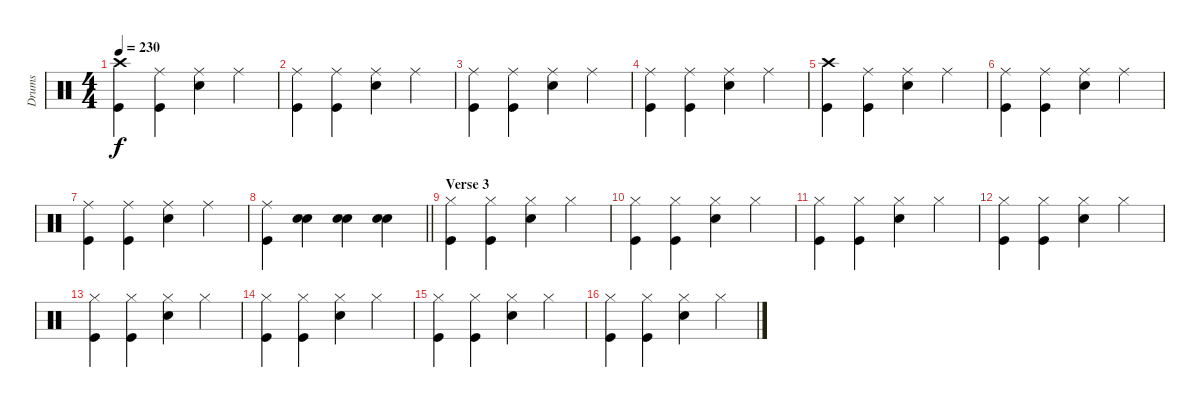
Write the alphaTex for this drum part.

\track ("Drums" "Drums") {instrument percussion}
\staff {score}
\articulation defaults
\ts (4 4)
\tempo 230
\clef neutral
\ks c
("Crash high (hit)" "Kick (hit)").4{dy f} ("Ride (middle)" "Kick (hit)").4 ("Ride (middle)" "Snare (hit) 2").4 "Ride (middle)".4 |
("Ride (middle)" "Kick (hit)").4 ("Ride (middle)" "Kick (hit)").4 ("Ride (middle)" "Snare (hit) 2").4 "Ride (middle)".4 |
("Ride (middle)" "Kick (hit)").4 ("Ride (middle)" "Kick (hit)").4 ("Ride (middle)" "Snare (hit) 2").4 "Ride (middle)".4 |
("Ride (middle)" "Kick (hit)").4 ("Ride (middle)" "Kick (hit)").4 ("Ride (middle)" "Snare (hit) 2").4 "Ride (middle)".4 |
("Crash high (hit)" "Kick (hit)").4 ("Ride (middle)" "Kick (hit)").4 ("Ride (middle)" "Snare (hit) 2").4 "Ride (middle)".4 |
("Ride (middle)" "Kick (hit)").4 ("Ride (middle)" "Kick (hit)").4 ("Ride (middle)" "Snare (hit) 2").4 "Ride (middle)".4 |
("Ride (middle)" "Kick (hit)").4 ("Ride (middle)" "Kick (hit)").4 ("Ride (middle)" "Snare (hit) 2").4 "Ride (middle)".4 |
\barLineRight lightlight
("Ride (middle)" "Kick (hit)").4 ("Snare (hit) 2" "Snare (hit) 2").4 ("Snare (hit) 2" "Snare (hit) 2").4 ("Snare (hit) 2" "Snare (hit) 2").4 |
\section ("" "Verse 3")
("Hi-Hat (closed)" "Kick (hit)").4 ("Hi-Hat (closed)" "Kick (hit)").4 ("Hi-Hat (closed)" "Snare (hit) 2").4 "Hi-Hat (closed)".4 |
("Hi-Hat (closed)" "Kick (hit)").4 ("Hi-Hat (closed)" "Kick (hit)").4 ("Hi-Hat (closed)" "Snare (hit) 2").4 "Hi-Hat (closed)".4 |
("Hi-Hat (closed)" "Kick (hit)").4 ("Hi-Hat (closed)" "Kick (hit)").4 ("Hi-Hat (closed)" "Snare (hit) 2").4 "Hi-Hat (closed)".4 |
("Hi-Hat (closed)" "Kick (hit)").4 ("Hi-Hat (closed)" "Kick (hit)").4 ("Hi-Hat (closed)" "Snare (hit) 2").4 "Hi-Hat (closed)".4 |
("Hi-Hat (closed)" "Kick (hit)").4 ("Hi-Hat (closed)" "Kick (hit)").4 ("Hi-Hat (closed)" "Snare (hit) 2").4 "Hi-Hat (closed)".4 |
("Hi-Hat (closed)" "Kick (hit)").4 ("Hi-Hat (closed)" "Kick (hit)").4 ("Hi-Hat (closed)" "Snare (hit) 2").4 "Hi-Hat (closed)".4 |
("Hi-Hat (closed)" "Kick (hit)").4 ("Hi-Hat (closed)" "Kick (hit)").4 ("Hi-Hat (closed)" "Snare (hit) 2").4 "Hi-Hat (closed)".4 |
("Hi-Hat (closed)" "Kick (hit)").4 ("Hi-Hat (closed)" "Kick (hit)").4 ("Hi-Hat (closed)" "Snare (hit) 2").4 "Hi-Hat (closed)".4
